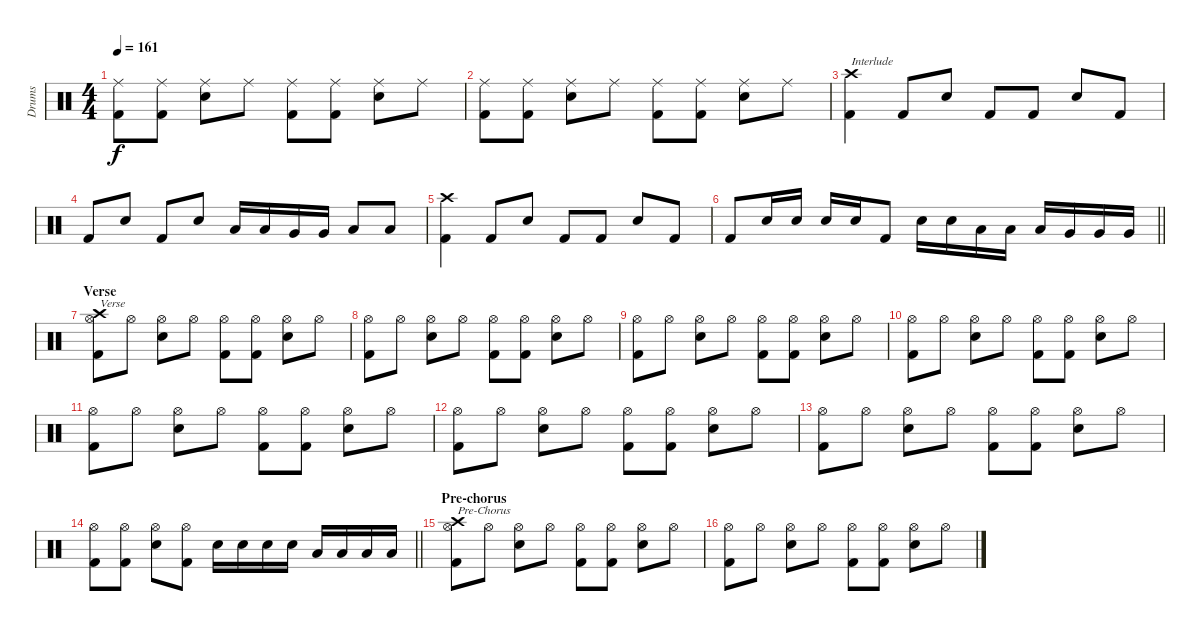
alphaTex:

\track ("Drums" "Drums") {instrument percussion}
\staff {score}
\articulation defaults
\ts (4 4)
\tempo 161
\clef neutral
\ks c
("Ride (middle)" "Kick (hit) 2").8{dy f} ("Ride (middle)" "Kick (hit) 2").8 ("Ride (middle)" "Electric Snare (hit)").8 "Ride (middle)".8 ("Ride (middle)" "Kick (hit) 2").8 ("Ride (middle)" "Kick (hit) 2").8 ("Ride (middle)" "Electric Snare (hit)").8 "Ride (middle)".8 |
("Ride (middle)" "Kick (hit) 2").8 ("Ride (middle)" "Kick (hit) 2").8 ("Ride (middle)" "Electric Snare (hit)").8 "Ride (middle)".8 ("Ride (middle)" "Kick (hit) 2").8 ("Ride (middle)" "Kick (hit) 2").8 ("Ride (middle)" "Electric Snare (hit)").8 "Ride (middle)".8 |
("Crash high (hit)" "Kick (hit) 2").4{txt "Interlude"} "Kick (hit) 2".8 "Electric Snare (hit)".8 "Kick (hit) 2".8 "Kick (hit) 2".8 "Electric Snare (hit)".8 "Kick (hit) 2".8 |
"Kick (hit) 2".8 "Electric Snare (hit)".8 "Kick (hit) 2".8 "Electric Snare (hit)".8 "Low Tom (hit)".16 "Low Tom (hit)".16 "Very Low Tom (hit)".16 "Very Low Tom (hit)".16 "Low Floor Tom (hit)".8 "Low Floor Tom (hit)".8 |
("Crash high (hit)" "Kick (hit) 2").4 "Kick (hit) 2".8 "Electric Snare (hit)".8 "Kick (hit) 2".8 "Kick (hit) 2".8 "Electric Snare (hit)".8 "Kick (hit) 2".8 |
\barLineRight lightlight "Kick (hit) 2".8 "Electric Snare (hit)".16 "Electric Snare (hit)".16 "Electric Snare (hit)".16 "Electric Snare (hit)".16 "Kick (hit) 2".8 "Electric Snare (hit)".16 "Electric Snare (hit)".16 "Low Tom (hit)".16 "Low Tom (hit)".16 "Low Tom (hit)".16 "Very Low Tom (hit)".16 "Very Low Tom (hit)".16 "Very Low Tom (hit)".16
|
\section ("" "Verse")
("Crash high (hit)" "Hi-Hat (open)" "Kick (hit) 2").8{txt "Verse"} "Hi-Hat (open)".8 ("Hi-Hat (open)" "Electric Snare (hit)").8 "Hi-Hat (open)".8 ("Hi-Hat (open)" "Kick (hit) 2").8 ("Hi-Hat (open)" "Kick (hit) 2").8 ("Hi-Hat (open)" "Electric Snare (hit)").8 "Hi-Hat (open)".8 |
("Hi-Hat (open)" "Kick (hit) 2").8 "Hi-Hat (open)".8 ("Hi-Hat (open)" "Electric Snare (hit)").8 "Hi-Hat (open)".8 ("Hi-Hat (open)" "Kick (hit) 2").8 ("Hi-Hat (open)" "Kick (hit) 2").8 ("Hi-Hat (open)" "Electric Snare (hit)").8 "Hi-Hat (open)".8 |
("Hi-Hat (open)" "Kick (hit) 2").8 "Hi-Hat (open)".8 ("Hi-Hat (open)" "Electric Snare (hit)").8 "Hi-Hat (open)".8 ("Hi-Hat (open)" "Kick (hit) 2").8 ("Hi-Hat (open)" "Kick (hit) 2").8 ("Hi-Hat (open)" "Electric Snare (hit)").8 "Hi-Hat (open)".8 |
("Hi-Hat (open)" "Kick (hit) 2").8 "Hi-Hat (open)".8 ("Hi-Hat (open)" "Electric Snare (hit)").8 "Hi-Hat (open)".8 ("Hi-Hat (open)" "Kick (hit) 2").8 ("Hi-Hat (open)" "Kick (hit) 2").8 ("Hi-Hat (open)" "Electric Snare (hit)").8 "Hi-Hat (open)".8 |
("Hi-Hat (open)" "Kick (hit) 2").8 "Hi-Hat (open)".8 ("Hi-Hat (open)" "Electric Snare (hit)").8 "Hi-Hat (open)".8 ("Hi-Hat (open)" "Kick (hit) 2").8 ("Hi-Hat (open)" "Kick (hit) 2").8 ("Hi-Hat (open)" "Electric Snare (hit)").8 "Hi-Hat (open)".8 |
("Hi-Hat (open)" "Kick (hit) 2").8 "Hi-Hat (open)".8 ("Hi-Hat (open)" "Electric Snare (hit)").8 "Hi-Hat (open)".8 ("Hi-Hat (open)" "Kick (hit) 2").8 ("Hi-Hat (open)" "Kick (hit) 2").8 ("Hi-Hat (open)" "Electric Snare (hit)").8 "Hi-Hat (open)".8 |
("Hi-Hat (open)" "Kick (hit) 2").8 "Hi-Hat (open)".8 ("Hi-Hat (open)" "Electric Snare (hit)").8 "Hi-Hat (open)".8 ("Hi-Hat (open)" "Kick (hit) 2").8 ("Hi-Hat (open)" "Kick (hit) 2").8 ("Hi-Hat (open)" "Electric Snare (hit)").8 "Hi-Hat (open)".8 |
\barLineRight lightlight
("Hi-Hat (open)" "Kick (hit) 2").8 ("Hi-Hat (open)" "Kick (hit) 2").8 ("Hi-Hat (open)" "Electric Snare (hit)").8 ("Hi-Hat (open)" "Kick (hit) 2").8 "Electric Snare (hit)".16 "Electric Snare (hit)".16 "Electric Snare (hit)".16 "Electric Snare (hit)".16 "Low Tom (hit)".16 "Low Tom (hit)".16 "Low Tom (hit)".16 "Low Tom (hit)".16 |
\section ("" "Pre-chorus")
("Crash high (hit)" "Hi-Hat (open)" "Kick (hit) 2").8{txt "Pre-Chorus"} "Hi-Hat (open)".8 ("Hi-Hat (open)" "Electric Snare (hit)").8 "Hi-Hat (open)".8 ("Hi-Hat (open)" "Kick (hit) 2").8 ("Hi-Hat (open)" "Kick (hit) 2").8 ("Hi-Hat (open)" "Electric Snare (hit)").8 "Hi-Hat (open)".8 |
("Hi-Hat (open)" "Kick (hit) 2").8 "Hi-Hat (open)".8 ("Hi-Hat (open)" "Electric Snare (hit)").8 "Hi-Hat (open)".8 ("Hi-Hat (open)" "Kick (hit) 2").8 ("Hi-Hat (open)" "Kick (hit) 2").8 ("Hi-Hat (open)" "Electric Snare (hit)").8 "Hi-Hat (open)".8
